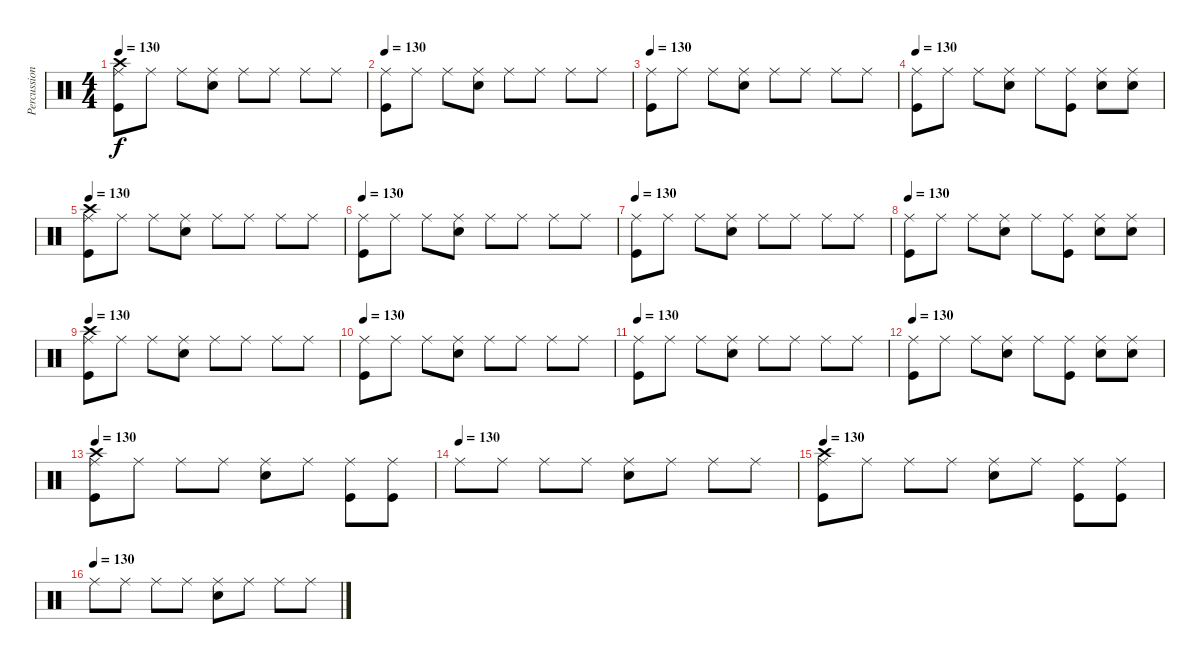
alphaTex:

\track ("Percussion" "Percussion") {instrument percussion}
\staff {score}
\articulation defaults
\ts (4 4)
\tempo 130
\clef neutral
\ks c
("Crash high (hit)" "Ride (middle)" "Kick (hit)").8{dy f} "Ride (middle)".8 "Ride (middle)".8 ("Ride (middle)" "Electric Snare (hit)").8 "Ride (middle)".8 "Ride (middle)".8 "Ride (middle)".8 "Ride (middle)".8 |
\tempo 130
("Ride (middle)" "Kick (hit)").8 "Ride (middle)".8 "Ride (middle)".8 ("Ride (middle)" "Electric Snare (hit)").8 "Ride (middle)".8 "Ride (middle)".8 "Ride (middle)".8 "Ride (middle)".8 |
\tempo 130
("Ride (middle)" "Kick (hit)").8 "Ride (middle)".8 "Ride (middle)".8 ("Ride (middle)" "Electric Snare (hit)").8 "Ride (middle)".8 "Ride (middle)".8 "Ride (middle)".8 "Ride (middle)".8 |
\tempo 130
("Ride (middle)" "Kick (hit)").8 "Ride (middle)".8 "Ride (middle)".8 ("Ride (middle)" "Electric Snare (hit)").8 "Ride (middle)".8 ("Ride (middle)" "Kick (hit)").8 ("Ride (middle)" "Electric Snare (hit)").8 ("Ride (middle)" "Electric Snare (hit)").8 |
\tempo 130
("Crash high (hit)" "Ride (middle)" "Kick (hit)").8 "Ride (middle)".8 "Ride (middle)".8 ("Ride (middle)" "Electric Snare (hit)").8 "Ride (middle)".8 "Ride (middle)".8 "Ride (middle)".8 "Ride (middle)".8 |
\tempo 130
("Ride (middle)" "Kick (hit)").8 "Ride (middle)".8 "Ride (middle)".8 ("Ride (middle)" "Electric Snare (hit)").8 "Ride (middle)".8 "Ride (middle)".8 "Ride (middle)".8 "Ride (middle)".8 |
\tempo 130
("Ride (middle)" "Kick (hit)").8 "Ride (middle)".8 "Ride (middle)".8 ("Ride (middle)" "Electric Snare (hit)").8 "Ride (middle)".8 "Ride (middle)".8 "Ride (middle)".8 "Ride (middle)".8 |
\tempo 130
("Ride (middle)" "Kick (hit)").8 "Ride (middle)".8 "Ride (middle)".8 ("Ride (middle)" "Electric Snare (hit)").8 "Ride (middle)".8 ("Ride (middle)" "Kick (hit)").8 ("Ride (middle)" "Electric Snare (hit)").8 ("Ride (middle)" "Electric Snare (hit)").8 |
\tempo 130
("Crash high (hit)" "Ride (middle)" "Kick (hit)").8 "Ride (middle)".8 "Ride (middle)".8 ("Ride (middle)" "Electric Snare (hit)").8 "Ride (middle)".8 "Ride (middle)".8 "Ride (middle)".8 "Ride (middle)".8 |
\tempo 130
("Ride (middle)" "Kick (hit)").8 "Ride (middle)".8 "Ride (middle)".8 ("Ride (middle)" "Electric Snare (hit)").8 "Ride (middle)".8 "Ride (middle)".8 "Ride (middle)".8 "Ride (middle)".8 |
\tempo 130
("Ride (middle)" "Kick (hit)").8 "Ride (middle)".8 "Ride (middle)".8 ("Ride (middle)" "Electric Snare (hit)").8 "Ride (middle)".8 "Ride (middle)".8 "Ride (middle)".8 "Ride (middle)".8 |
\tempo 130
("Ride (middle)" "Kick (hit)").8 "Ride (middle)".8 "Ride (middle)".8 ("Ride (middle)" "Electric Snare (hit)").8 "Ride (middle)".8 ("Ride (middle)" "Kick (hit)").8 ("Ride (middle)" "Electric Snare (hit)").8 ("Ride (middle)" "Electric Snare (hit)").8 |
\tempo 130
("Crash high (hit)" "Ride (middle)" "Kick (hit)").8 "Ride (middle)".8 "Ride (middle)".8 "Ride (middle)".8 ("Ride (middle)" "Electric Snare (hit)").8 "Ride (middle)".8 ("Ride (middle)" "Kick (hit)").8 ("Ride (middle)" "Kick (hit)").8 |
\tempo (130)
"Ride (middle)".8 "Ride (middle)".8 "Ride (middle)".8 "Ride (middle)".8 ("Ride (middle)" "Electric Snare (hit)").8 "Ride (middle)".8 "Ride (middle)".8 "Ride (middle)".8 |
\tempo 130
("Crash high (hit)" "Ride (middle)" "Kick (hit)").8 "Ride (middle)".8 "Ride (middle)".8 "Ride (middle)".8 ("Ride (middle)" "Electric Snare (hit)").8 "Ride (middle)".8 ("Ride (middle)" "Kick (hit)").8 ("Ride (middle)" "Kick (hit)").8 |
\tempo (130)
"Ride (middle)".8 "Ride (middle)".8 "Ride (middle)".8 "Ride (middle)".8 ("Ride (middle)" "Electric Snare (hit)").8 "Ride (middle)".8 "Ride (middle)".8 "Ride (middle)".8
